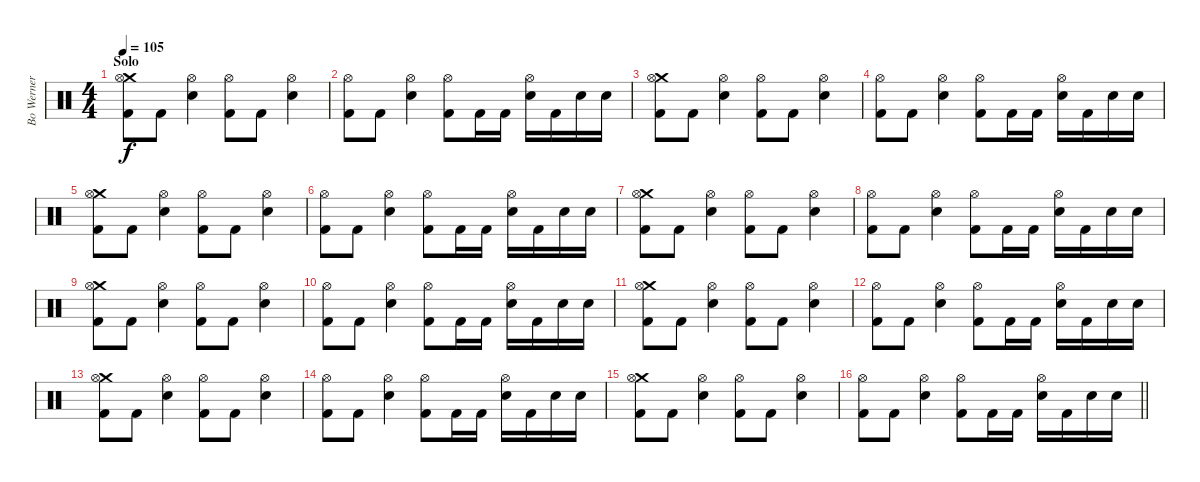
\track ("Bo Werner" "Bo Werner") {instrument percussion}
\staff {score}
\articulation defaults
\ts (4 4)
\section ("" "Solo")
\tempo 105
\clef neutral
\ks c
("Crash medium (hit)" "Hi-Hat (open)" "Kick (hit) 2").8{dy f} "Kick (hit) 2".8 ("Hi-Hat (open)" "Snare (hit) 2").4 ("Hi-Hat (open)" "Kick (hit) 2").8 "Kick (hit) 2".8 ("Hi-Hat (open)" "Snare (hit) 2").4 |
("Hi-Hat (open)" "Kick (hit) 2").8 "Kick (hit) 2".8 ("Hi-Hat (open)" "Snare (hit) 2").4 ("Hi-Hat (open)" "Kick (hit) 2").8 "Kick (hit) 2".16 "Kick (hit) 2".16 ("Hi-Hat (open)" "Snare (hit) 2").16 "Kick (hit) 2".16 "Snare (hit) 2".16 "Snare (hit) 2".16 |
("Crash medium (hit)" "Hi-Hat (open)" "Kick (hit) 2").8 "Kick (hit) 2".8 ("Hi-Hat (open)" "Snare (hit) 2").4 ("Hi-Hat (open)" "Kick (hit) 2").8 "Kick (hit) 2".8 ("Hi-Hat (open)" "Snare (hit) 2").4 |
("Hi-Hat (open)" "Kick (hit) 2").8 "Kick (hit) 2".8 ("Hi-Hat (open)" "Snare (hit) 2").4 ("Hi-Hat (open)" "Kick (hit) 2").8 "Kick (hit) 2".16 "Kick (hit) 2".16 ("Hi-Hat (open)" "Snare (hit) 2").16 "Kick (hit) 2".16 "Snare (hit) 2".16 "Snare (hit) 2".16 |
("Crash medium (hit)" "Hi-Hat (open)" "Kick (hit) 2").8 "Kick (hit) 2".8 ("Hi-Hat (open)" "Snare (hit) 2").4 ("Hi-Hat (open)" "Kick (hit) 2").8 "Kick (hit) 2".8 ("Hi-Hat (open)" "Snare (hit) 2").4 |
("Hi-Hat (open)" "Kick (hit) 2").8 "Kick (hit) 2".8 ("Hi-Hat (open)" "Snare (hit) 2").4 ("Hi-Hat (open)" "Kick (hit) 2").8 "Kick (hit) 2".16 "Kick (hit) 2".16 ("Hi-Hat (open)" "Snare (hit) 2").16 "Kick (hit) 2".16 "Snare (hit) 2".16 "Snare (hit) 2".16 |
("Crash medium (hit)" "Hi-Hat (open)" "Kick (hit) 2").8 "Kick (hit) 2".8 ("Hi-Hat (open)" "Snare (hit) 2").4 ("Hi-Hat (open)" "Kick (hit) 2").8 "Kick (hit) 2".8 ("Hi-Hat (open)" "Snare (hit) 2").4 |
("Hi-Hat (open)" "Kick (hit) 2").8 "Kick (hit) 2".8 ("Hi-Hat (open)" "Snare (hit) 2").4 ("Hi-Hat (open)" "Kick (hit) 2").8 "Kick (hit) 2".16 "Kick (hit) 2".16 ("Hi-Hat (open)" "Snare (hit) 2").16 "Kick (hit) 2".16 "Snare (hit) 2".16 "Snare (hit) 2".16 |
("Crash medium (hit)" "Hi-Hat (open)" "Kick (hit) 2").8 "Kick (hit) 2".8 ("Hi-Hat (open)" "Snare (hit) 2").4 ("Hi-Hat (open)" "Kick (hit) 2").8 "Kick (hit) 2".8 ("Hi-Hat (open)" "Snare (hit) 2").4 |
("Hi-Hat (open)" "Kick (hit) 2").8 "Kick (hit) 2".8 ("Hi-Hat (open)" "Snare (hit) 2").4 ("Hi-Hat (open)" "Kick (hit) 2").8 "Kick (hit) 2".16 "Kick (hit) 2".16 ("Hi-Hat (open)" "Snare (hit) 2").16 "Kick (hit) 2".16 "Snare (hit) 2".16 "Snare (hit) 2".16 |
("Crash medium (hit)" "Hi-Hat (open)" "Kick (hit) 2").8 "Kick (hit) 2".8 ("Hi-Hat (open)" "Snare (hit) 2").4 ("Hi-Hat (open)" "Kick (hit) 2").8 "Kick (hit) 2".8 ("Hi-Hat (open)" "Snare (hit) 2").4 |
("Hi-Hat (open)" "Kick (hit) 2").8 "Kick (hit) 2".8 ("Hi-Hat (open)" "Snare (hit) 2").4 ("Hi-Hat (open)" "Kick (hit) 2").8 "Kick (hit) 2".16 "Kick (hit) 2".16 ("Hi-Hat (open)" "Snare (hit) 2").16 "Kick (hit) 2".16 "Snare (hit) 2".16 "Snare (hit) 2".16 |
("Crash medium (hit)" "Hi-Hat (open)" "Kick (hit) 2").8 "Kick (hit) 2".8 ("Hi-Hat (open)" "Snare (hit) 2").4 ("Hi-Hat (open)" "Kick (hit) 2").8 "Kick (hit) 2".8 ("Hi-Hat (open)" "Snare (hit) 2").4 |
("Hi-Hat (open)" "Kick (hit) 2").8 "Kick (hit) 2".8 ("Hi-Hat (open)" "Snare (hit) 2").4 ("Hi-Hat (open)" "Kick (hit) 2").8 "Kick (hit) 2".16 "Kick (hit) 2".16 ("Hi-Hat (open)" "Snare (hit) 2").16 "Kick (hit) 2".16 "Snare (hit) 2".16 "Snare (hit) 2".16 |
("Crash medium (hit)" "Hi-Hat (open)" "Kick (hit) 2").8 "Kick (hit) 2".8 ("Hi-Hat (open)" "Snare (hit) 2").4 ("Hi-Hat (open)" "Kick (hit) 2").8 "Kick (hit) 2".8 ("Hi-Hat (open)" "Snare (hit) 2").4 |
\barLineRight lightlight
("Hi-Hat (open)" "Kick (hit) 2").8 "Kick (hit) 2".8 ("Hi-Hat (open)" "Snare (hit) 2").4 ("Hi-Hat (open)" "Kick (hit) 2").8 "Kick (hit) 2".16 "Kick (hit) 2".16 ("Hi-Hat (open)" "Snare (hit) 2").16 "Kick (hit) 2".16 "Snare (hit) 2".16 "Snare (hit) 2".16
